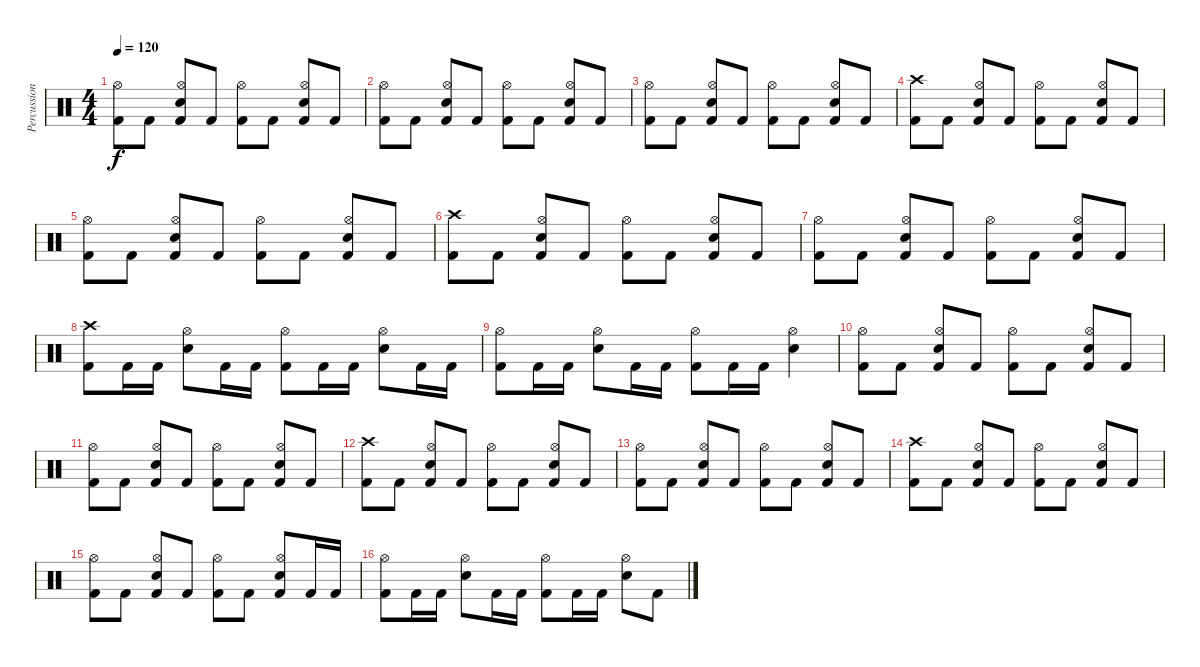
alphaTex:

\track ("Percussion" "Percussion") {instrument percussion}
\staff {score}
\articulation defaults
\ts (4 4)
\tempo 120
\clef neutral
\ks c
("Kick (hit) 2" "Hi-Hat (open)").8{dy f} "Kick (hit) 2".8 ("Kick (hit) 2" "Snare (hit) 2" "Hi-Hat (open)").8 "Kick (hit) 2".8 ("Kick (hit) 2" "Hi-Hat (open)").8 "Kick (hit) 2".8 ("Kick (hit) 2" "Snare (hit) 2" "Hi-Hat (open)").8 "Kick (hit) 2".8 |
("Kick (hit) 2" "Hi-Hat (open)").8 "Kick (hit) 2".8 ("Kick (hit) 2" "Snare (hit) 2" "Hi-Hat (open)").8 "Kick (hit) 2".8 ("Kick (hit) 2" "Hi-Hat (open)").8 "Kick (hit) 2".8 ("Kick (hit) 2" "Snare (hit) 2" "Hi-Hat (open)").8 "Kick (hit) 2".8 |
("Kick (hit) 2" "Hi-Hat (open)").8 "Kick (hit) 2".8 ("Kick (hit) 2" "Snare (hit) 2" "Hi-Hat (open)").8 "Kick (hit) 2".8 ("Kick (hit) 2" "Hi-Hat (open)").8 "Kick (hit) 2".8 ("Kick (hit) 2" "Snare (hit) 2" "Hi-Hat (open)").8 "Kick (hit) 2".8 |
("Kick (hit) 2" "Crash high (hit)").8 "Kick (hit) 2".8 ("Kick (hit) 2" "Snare (hit) 2" "Hi-Hat (open)").8 "Kick (hit) 2".8 ("Kick (hit) 2" "Hi-Hat (open)").8 "Kick (hit) 2".8 ("Kick (hit) 2" "Snare (hit) 2" "Hi-Hat (open)").8 "Kick (hit) 2".8 |
("Kick (hit) 2" "Hi-Hat (open)").8 "Kick (hit) 2".8 ("Kick (hit) 2" "Snare (hit) 2" "Hi-Hat (open)").8 "Kick (hit) 2".8 ("Kick (hit) 2" "Hi-Hat (open)").8 "Kick (hit) 2".8 ("Kick (hit) 2" "Snare (hit) 2" "Hi-Hat (open)").8 "Kick (hit) 2".8 |
("Kick (hit) 2" "Crash high (hit)").8 "Kick (hit) 2".8 ("Kick (hit) 2" "Snare (hit) 2" "Hi-Hat (open)").8 "Kick (hit) 2".8 ("Kick (hit) 2" "Hi-Hat (open)").8 "Kick (hit) 2".8 ("Kick (hit) 2" "Snare (hit) 2" "Hi-Hat (open)").8 "Kick (hit) 2".8 |
("Kick (hit) 2" "Hi-Hat (open)").8 "Kick (hit) 2".8 ("Kick (hit) 2" "Snare (hit) 2" "Hi-Hat (open)").8 "Kick (hit) 2".8 ("Kick (hit) 2" "Hi-Hat (open)").8 "Kick (hit) 2".8 ("Kick (hit) 2" "Snare (hit) 2" "Hi-Hat (open)").8 "Kick (hit) 2".8 |
("Kick (hit) 2" "Crash high (hit)").8 "Kick (hit) 2".16 "Kick (hit) 2".16 ("Snare (hit) 2" "Hi-Hat (open)").8 "Kick (hit) 2".16 "Kick (hit) 2".16 ("Kick (hit) 2" "Hi-Hat (open)").8 "Kick (hit) 2".16 "Kick (hit) 2".16 ("Snare (hit) 2" "Hi-Hat (open)").8 "Kick (hit) 2".16 "Kick (hit) 2".16 |
("Kick (hit) 2" "Hi-Hat (open)").8 "Kick (hit) 2".16 "Kick (hit) 2".16 ("Snare (hit) 2" "Hi-Hat (open)").8 "Kick (hit) 2".16 "Kick (hit) 2".16 ("Kick (hit) 2" "Hi-Hat (open)").8 "Kick (hit) 2".16 "Kick (hit) 2".16 ("Snare (hit) 2" "Hi-Hat (open)").4 |
("Kick (hit) 2" "Hi-Hat (open)").8 "Kick (hit) 2".8 ("Kick (hit) 2" "Snare (hit) 2" "Hi-Hat (open)").8 "Kick (hit) 2".8 ("Kick (hit) 2" "Hi-Hat (open)").8 "Kick (hit) 2".8 ("Kick (hit) 2" "Snare (hit) 2" "Hi-Hat (open)").8 "Kick (hit) 2".8 |
("Kick (hit) 2" "Hi-Hat (open)").8 "Kick (hit) 2".8 ("Kick (hit) 2" "Snare (hit) 2" "Hi-Hat (open)").8 "Kick (hit) 2".8 ("Kick (hit) 2" "Hi-Hat (open)").8 "Kick (hit) 2".8 ("Kick (hit) 2" "Snare (hit) 2" "Hi-Hat (open)").8 "Kick (hit) 2".8 |
("Kick (hit) 2" "Crash high (hit)").8 "Kick (hit) 2".8 ("Kick (hit) 2" "Snare (hit) 2" "Hi-Hat (open)").8 "Kick (hit) 2".8 ("Kick (hit) 2" "Hi-Hat (open)").8 "Kick (hit) 2".8 ("Kick (hit) 2" "Snare (hit) 2" "Hi-Hat (open)").8 "Kick (hit) 2".8 |
("Kick (hit) 2" "Hi-Hat (open)").8 "Kick (hit) 2".8 ("Kick (hit) 2" "Snare (hit) 2" "Hi-Hat (open)").8 "Kick (hit) 2".8 ("Kick (hit) 2" "Hi-Hat (open)").8 "Kick (hit) 2".8 ("Kick (hit) 2" "Snare (hit) 2" "Hi-Hat (open)").8 "Kick (hit) 2".8 |
("Kick (hit) 2" "Crash high (hit)").8 "Kick (hit) 2".8 ("Kick (hit) 2" "Snare (hit) 2" "Hi-Hat (open)").8 "Kick (hit) 2".8 ("Kick (hit) 2" "Hi-Hat (open)").8 "Kick (hit) 2".8 ("Kick (hit) 2" "Snare (hit) 2" "Hi-Hat (open)").8 "Kick (hit) 2".8 |
("Kick (hit) 2" "Hi-Hat (open)").8 "Kick (hit) 2".8 ("Kick (hit) 2" "Snare (hit) 2" "Hi-Hat (open)").8 "Kick (hit) 2".8 ("Kick (hit) 2" "Hi-Hat (open)").8 "Kick (hit) 2".8 ("Kick (hit) 2" "Snare (hit) 2" "Hi-Hat (open)").8 "Kick (hit) 2".16 "Kick (hit) 2".16 |
("Kick (hit) 2" "Hi-Hat (open)").8 "Kick (hit) 2".16 "Kick (hit) 2".16 ("Snare (hit) 2" "Hi-Hat (open)").8 "Kick (hit) 2".16 "Kick (hit) 2".16 ("Kick (hit) 2" "Hi-Hat (open)").8 "Kick (hit) 2".16 "Kick (hit) 2".16 ("Snare (hit) 2" "Hi-Hat (open)").8 "Kick (hit) 2".8
